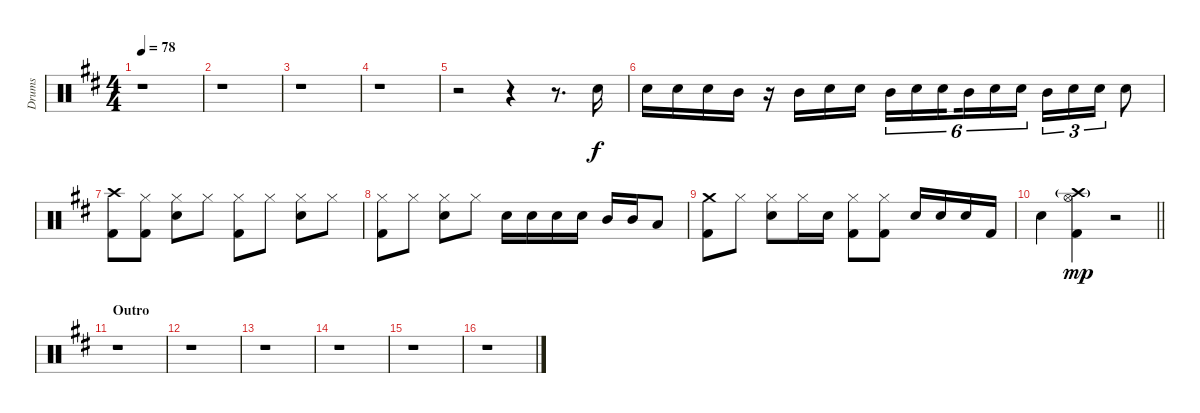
\track ("Drums" "Drums") {instrument percussion}
\staff {score}
\articulation defaults
\ts (4 4)
\tempo 78
\clef neutral
\ks d
r.1{dy f} |
r.1 |
r.1 |
r.1 |
r.2 r.4 r.8{d} "Electric Snare (hit)".16 |
"Electric Snare (hit)".16 "Electric Snare (hit)".16 "Electric Snare (hit)".16 "Mid Tom (hit)".16 r.16 "Mid Tom (hit)".16 "Electric Snare (hit)".16 "Electric Snare (hit)".16 "Mid Tom (hit)".16{tu (6 4)} "Electric Snare (hit)".16{tu (6 4)} "Electric Snare (hit)".16{tu (6 4) beam splitsecondary} "Mid Tom (hit)".16{tu (6 4)} "Electric Snare (hit)".16{tu (6 4)} "Electric Snare (hit)".16{tu (6 4)} "Mid Tom (hit)".16{tu (3 2)} "Electric Snare (hit)".16{tu (3 2)} "Electric Snare (hit)".16{tu (3 2)} "Electric Snare (hit)".8 |
("Crash high (hit)" "Kick (hit) 2").8 ("Hi-Hat (closed)" "Kick (hit) 2").8 ("Hi-Hat (closed)" "Electric Snare (hit)").8 "Hi-Hat (closed)".8 ("Hi-Hat (closed)" "Kick (hit) 2").8 "Hi-Hat (closed)".8 ("Hi-Hat (closed)" "Electric Snare (hit)").8 "Hi-Hat (closed)".8 |
("Hi-Hat (closed)" "Kick (hit) 2").8 "Hi-Hat (closed)".8 ("Hi-Hat (closed)" "Electric Snare (hit)").8 "Hi-Hat (closed)".8 "Electric Snare (hit)".16 "Electric Snare (hit)".16 "Electric Snare (hit)".16 "Electric Snare (hit)".16 "Mid Tom (hit)".16 "Mid Tom (hit)".16 "Low Tom (hit)".8 |
("Crash medium (hit)" "Kick (hit) 2").8 "Hi-Hat (closed)".8 ("Hi-Hat (closed)" "Electric Snare (hit)").8 "Hi-Hat (closed)".16 "Electric Snare (hit)".16 ("Hi-Hat (closed)" "Kick (hit) 2").8 ("Hi-Hat (closed)" "Kick (hit) 2").8 "Electric Snare (hit)".16 "Electric Snare (hit)".16 "Electric Snare (hit)".16 "Kick (hit) 2".16 |
\barLineRight lightlight "Electric Snare (hit)".4
("Crash high (hit)"{g} "Hi-Hat (open)" "Kick (hit) 2").4{dy mp} r.2 |
\section ("" "Outro ")
r.1 |
r.1 |
r.1 |
r.1 |
r.1 |
r.1
